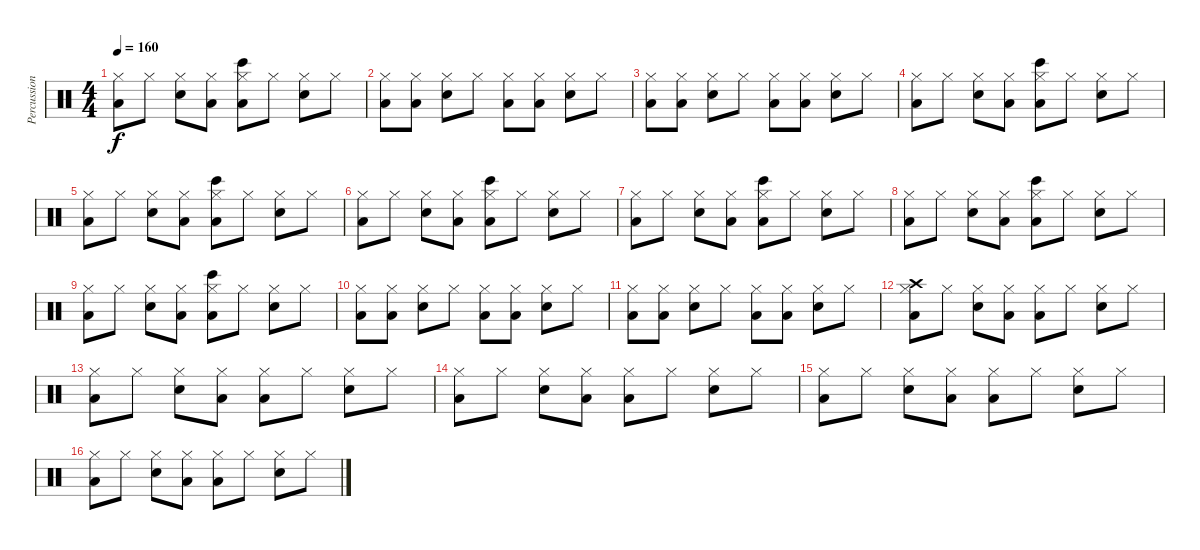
\track ("Percussions" "Percussion") {instrument percussion}
\staff {score}
\articulation defaults
\ts (4 4)
\tempo 160
\clef neutral
\ks c
("Low Floor Tom (hit)" "Hi-Hat (closed)").8{dy f} "Hi-Hat (closed)".8 ("Electric Snare (hit)" "Hi-Hat (closed)").8 ("Low Floor Tom (hit)" "Hi-Hat (closed)").8 ("Low Floor Tom (hit)" "Bongo High (hit)" "Hi-Hat (closed)").8 "Hi-Hat (closed)".8 ("Electric Snare (hit)" "Hi-Hat (closed)").8 "Hi-Hat (closed)".8 |
("Low Floor Tom (hit)" "Hi-Hat (closed)").8 ("Low Floor Tom (hit)" "Hi-Hat (closed)").8 ("Electric Snare (hit)" "Hi-Hat (closed)").8 "Hi-Hat (closed)".8 ("Low Floor Tom (hit)" "Hi-Hat (closed)").8 ("Low Floor Tom (hit)" "Hi-Hat (closed)").8 ("Electric Snare (hit)" "Hi-Hat (closed)").8 "Hi-Hat (closed)".8 |
("Low Floor Tom (hit)" "Hi-Hat (closed)").8 ("Low Floor Tom (hit)" "Hi-Hat (closed)").8 ("Electric Snare (hit)" "Hi-Hat (closed)").8 "Hi-Hat (closed)".8 ("Low Floor Tom (hit)" "Hi-Hat (closed)").8 ("Low Floor Tom (hit)" "Hi-Hat (closed)").8 ("Electric Snare (hit)" "Hi-Hat (closed)").8 "Hi-Hat (closed)".8 |
("Low Floor Tom (hit)" "Hi-Hat (closed)").8 "Hi-Hat (closed)".8 ("Electric Snare (hit)" "Hi-Hat (closed)").8 ("Low Floor Tom (hit)" "Hi-Hat (closed)").8 ("Low Floor Tom (hit)" "Bongo High (hit)" "Hi-Hat (closed)").8 "Hi-Hat (closed)".8 ("Electric Snare (hit)" "Hi-Hat (closed)").8 "Hi-Hat (closed)".8 |
("Low Floor Tom (hit)" "Hi-Hat (closed)").8 "Hi-Hat (closed)".8 ("Electric Snare (hit)" "Hi-Hat (closed)").8 ("Low Floor Tom (hit)" "Hi-Hat (closed)").8 ("Low Floor Tom (hit)" "Bongo High (hit)" "Hi-Hat (closed)").8 "Hi-Hat (closed)".8 ("Electric Snare (hit)" "Hi-Hat (closed)").8 "Hi-Hat (closed)".8 |
("Low Floor Tom (hit)" "Hi-Hat (closed)").8 "Hi-Hat (closed)".8 ("Electric Snare (hit)" "Hi-Hat (closed)").8 ("Low Floor Tom (hit)" "Hi-Hat (closed)").8 ("Low Floor Tom (hit)" "Bongo High (hit)" "Hi-Hat (closed)").8 "Hi-Hat (closed)".8 ("Electric Snare (hit)" "Hi-Hat (closed)").8 "Hi-Hat (closed)".8 |
("Low Floor Tom (hit)" "Hi-Hat (closed)").8 "Hi-Hat (closed)".8 ("Electric Snare (hit)" "Hi-Hat (closed)").8 ("Low Floor Tom (hit)" "Hi-Hat (closed)").8 ("Low Floor Tom (hit)" "Bongo High (hit)" "Hi-Hat (closed)").8 "Hi-Hat (closed)".8 ("Electric Snare (hit)" "Hi-Hat (closed)").8 "Hi-Hat (closed)".8 |
("Low Floor Tom (hit)" "Hi-Hat (closed)").8 "Hi-Hat (closed)".8 ("Electric Snare (hit)" "Hi-Hat (closed)").8 ("Low Floor Tom (hit)" "Hi-Hat (closed)").8 ("Low Floor Tom (hit)" "Bongo High (hit)" "Hi-Hat (closed)").8 "Hi-Hat (closed)".8 ("Electric Snare (hit)" "Hi-Hat (closed)").8 "Hi-Hat (closed)".8 |
("Low Floor Tom (hit)" "Hi-Hat (closed)").8 "Hi-Hat (closed)".8 ("Electric Snare (hit)" "Hi-Hat (closed)").8 ("Low Floor Tom (hit)" "Hi-Hat (closed)").8 ("Low Floor Tom (hit)" "Bongo High (hit)" "Hi-Hat (closed)").8 "Hi-Hat (closed)".8 ("Electric Snare (hit)" "Hi-Hat (closed)").8 "Hi-Hat (closed)".8 |
("Low Floor Tom (hit)" "Hi-Hat (closed)").8 ("Low Floor Tom (hit)" "Hi-Hat (closed)").8 ("Electric Snare (hit)" "Hi-Hat (closed)").8 "Hi-Hat (closed)".8 ("Low Floor Tom (hit)" "Hi-Hat (closed)").8 ("Low Floor Tom (hit)" "Hi-Hat (closed)").8 ("Electric Snare (hit)" "Hi-Hat (closed)").8 "Hi-Hat (closed)".8 |
("Low Floor Tom (hit)" "Hi-Hat (closed)").8 ("Low Floor Tom (hit)" "Hi-Hat (closed)").8 ("Electric Snare (hit)" "Hi-Hat (closed)").8 "Hi-Hat (closed)".8 ("Low Floor Tom (hit)" "Hi-Hat (closed)").8 ("Low Floor Tom (hit)" "Hi-Hat (closed)").8 ("Electric Snare (hit)" "Hi-Hat (closed)").8 "Hi-Hat (closed)".8 |
("Low Floor Tom (hit)" "Hi-Hat (closed)" "Crash high (hit)").8 "Hi-Hat (closed)".8 ("Electric Snare (hit)" "Hi-Hat (closed)").8 ("Low Floor Tom (hit)" "Hi-Hat (closed)").8 ("Low Floor Tom (hit)" "Hi-Hat (closed)").8 "Hi-Hat (closed)".8 ("Electric Snare (hit)" "Hi-Hat (closed)").8 "Hi-Hat (closed)".8 |
("Low Floor Tom (hit)" "Hi-Hat (closed)").8 "Hi-Hat (closed)".8 ("Electric Snare (hit)" "Hi-Hat (closed)").8 ("Low Floor Tom (hit)" "Hi-Hat (closed)").8 ("Low Floor Tom (hit)" "Hi-Hat (closed)").8 "Hi-Hat (closed)".8 ("Electric Snare (hit)" "Hi-Hat (closed)").8 "Hi-Hat (closed)".8 |
("Low Floor Tom (hit)" "Hi-Hat (closed)").8 "Hi-Hat (closed)".8 ("Electric Snare (hit)" "Hi-Hat (closed)").8 ("Low Floor Tom (hit)" "Hi-Hat (closed)").8 ("Low Floor Tom (hit)" "Hi-Hat (closed)").8 "Hi-Hat (closed)".8 ("Electric Snare (hit)" "Hi-Hat (closed)").8 "Hi-Hat (closed)".8 |
("Low Floor Tom (hit)" "Hi-Hat (closed)").8 "Hi-Hat (closed)".8 ("Electric Snare (hit)" "Hi-Hat (closed)").8 ("Low Floor Tom (hit)" "Hi-Hat (closed)").8 ("Low Floor Tom (hit)" "Hi-Hat (closed)").8 "Hi-Hat (closed)".8 ("Electric Snare (hit)" "Hi-Hat (closed)").8 "Hi-Hat (closed)".8 |
("Low Floor Tom (hit)" "Hi-Hat (closed)").8 "Hi-Hat (closed)".8 ("Electric Snare (hit)" "Hi-Hat (closed)").8 ("Low Floor Tom (hit)" "Hi-Hat (closed)").8 ("Low Floor Tom (hit)" "Hi-Hat (closed)").8 "Hi-Hat (closed)".8 ("Electric Snare (hit)" "Hi-Hat (closed)").8 "Hi-Hat (closed)".8
